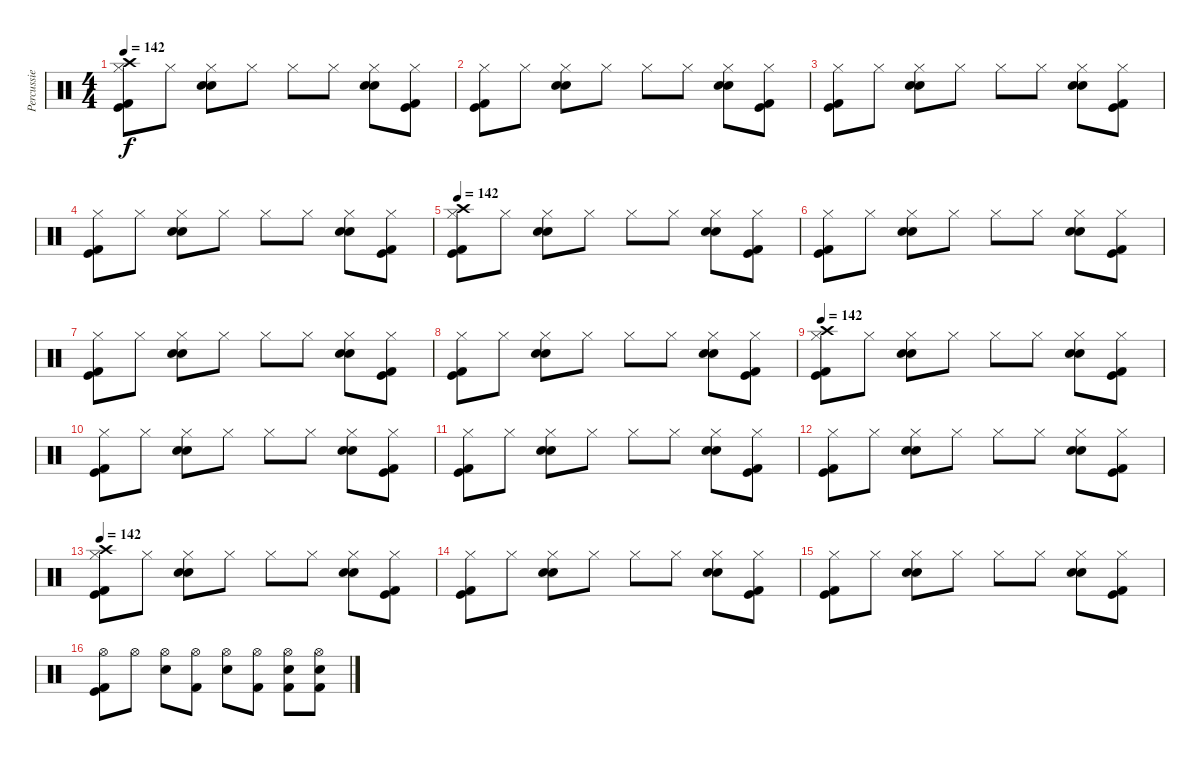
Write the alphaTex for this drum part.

\track ("Percussie" "Percussie") {instrument percussion}
\staff {score}
\articulation defaults
\ts (4 4)
\tempo 142
\clef neutral
\ks c
("Kick (hit)" "Kick (hit) 2" "Hi-Hat (closed)" "Crash high (hit)").8{dy f} "Hi-Hat (closed)".8 ("Snare (hit) 2" "Electric Snare (hit)" "Hi-Hat (closed)").8 "Hi-Hat (closed)".8 "Hi-Hat (closed)".8 "Hi-Hat (closed)".8 ("Snare (hit) 2" "Electric Snare (hit)" "Hi-Hat (closed)").8 ("Kick (hit)" "Kick (hit) 2" "Hi-Hat (closed)").8 |
("Kick (hit)" "Kick (hit) 2" "Hi-Hat (closed)").8 "Hi-Hat (closed)".8 ("Snare (hit) 2" "Electric Snare (hit)" "Hi-Hat (closed)").8 "Hi-Hat (closed)".8 "Hi-Hat (closed)".8 "Hi-Hat (closed)".8 ("Snare (hit) 2" "Electric Snare (hit)" "Hi-Hat (closed)").8 ("Kick (hit)" "Kick (hit) 2" "Hi-Hat (closed)").8 |
("Kick (hit)" "Kick (hit) 2" "Hi-Hat (closed)").8 "Hi-Hat (closed)".8 ("Snare (hit) 2" "Electric Snare (hit)" "Hi-Hat (closed)").8 "Hi-Hat (closed)".8 "Hi-Hat (closed)".8 "Hi-Hat (closed)".8 ("Snare (hit) 2" "Electric Snare (hit)" "Hi-Hat (closed)").8 ("Kick (hit)" "Kick (hit) 2" "Hi-Hat (closed)").8 |
("Kick (hit)" "Kick (hit) 2" "Hi-Hat (closed)").8 "Hi-Hat (closed)".8 ("Snare (hit) 2" "Electric Snare (hit)" "Hi-Hat (closed)").8 "Hi-Hat (closed)".8 "Hi-Hat (closed)".8 "Hi-Hat (closed)".8 ("Snare (hit) 2" "Electric Snare (hit)" "Hi-Hat (closed)").8 ("Kick (hit)" "Kick (hit) 2" "Hi-Hat (closed)").8 |
\tempo 142
("Kick (hit)" "Kick (hit) 2" "Hi-Hat (closed)" "Crash high (hit)").8 "Hi-Hat (closed)".8 ("Snare (hit) 2" "Electric Snare (hit)" "Hi-Hat (closed)").8 "Hi-Hat (closed)".8 "Hi-Hat (closed)".8 "Hi-Hat (closed)".8 ("Snare (hit) 2" "Electric Snare (hit)" "Hi-Hat (closed)").8 ("Kick (hit)" "Kick (hit) 2" "Hi-Hat (closed)").8 |
("Kick (hit)" "Kick (hit) 2" "Hi-Hat (closed)").8 "Hi-Hat (closed)".8 ("Snare (hit) 2" "Electric Snare (hit)" "Hi-Hat (closed)").8 "Hi-Hat (closed)".8 "Hi-Hat (closed)".8 "Hi-Hat (closed)".8 ("Snare (hit) 2" "Electric Snare (hit)" "Hi-Hat (closed)").8 ("Kick (hit)" "Kick (hit) 2" "Hi-Hat (closed)").8 |
("Kick (hit)" "Kick (hit) 2" "Hi-Hat (closed)").8 "Hi-Hat (closed)".8 ("Snare (hit) 2" "Electric Snare (hit)" "Hi-Hat (closed)").8 "Hi-Hat (closed)".8 "Hi-Hat (closed)".8 "Hi-Hat (closed)".8 ("Snare (hit) 2" "Electric Snare (hit)" "Hi-Hat (closed)").8 ("Kick (hit)" "Kick (hit) 2" "Hi-Hat (closed)").8 |
("Kick (hit)" "Kick (hit) 2" "Hi-Hat (closed)").8 "Hi-Hat (closed)".8 ("Snare (hit) 2" "Electric Snare (hit)" "Hi-Hat (closed)").8 "Hi-Hat (closed)".8 "Hi-Hat (closed)".8 "Hi-Hat (closed)".8 ("Snare (hit) 2" "Electric Snare (hit)" "Hi-Hat (closed)").8 ("Kick (hit)" "Kick (hit) 2" "Hi-Hat (closed)").8 |
\tempo 142
("Kick (hit)" "Kick (hit) 2" "Hi-Hat (closed)" "Crash high (hit)").8 "Hi-Hat (closed)".8 ("Snare (hit) 2" "Electric Snare (hit)" "Hi-Hat (closed)").8 "Hi-Hat (closed)".8 "Hi-Hat (closed)".8 "Hi-Hat (closed)".8 ("Snare (hit) 2" "Electric Snare (hit)" "Hi-Hat (closed)").8 ("Kick (hit)" "Kick (hit) 2" "Hi-Hat (closed)").8 |
("Kick (hit)" "Kick (hit) 2" "Hi-Hat (closed)").8 "Hi-Hat (closed)".8 ("Snare (hit) 2" "Electric Snare (hit)" "Hi-Hat (closed)").8 "Hi-Hat (closed)".8 "Hi-Hat (closed)".8 "Hi-Hat (closed)".8 ("Snare (hit) 2" "Electric Snare (hit)" "Hi-Hat (closed)").8 ("Kick (hit)" "Kick (hit) 2" "Hi-Hat (closed)").8 |
("Kick (hit)" "Kick (hit) 2" "Hi-Hat (closed)").8 "Hi-Hat (closed)".8 ("Snare (hit) 2" "Electric Snare (hit)" "Hi-Hat (closed)").8 "Hi-Hat (closed)".8 "Hi-Hat (closed)".8 "Hi-Hat (closed)".8 ("Snare (hit) 2" "Electric Snare (hit)" "Hi-Hat (closed)").8 ("Kick (hit)" "Kick (hit) 2" "Hi-Hat (closed)").8 |
("Kick (hit)" "Kick (hit) 2" "Hi-Hat (closed)").8 "Hi-Hat (closed)".8 ("Snare (hit) 2" "Electric Snare (hit)" "Hi-Hat (closed)").8 "Hi-Hat (closed)".8 "Hi-Hat (closed)".8 "Hi-Hat (closed)".8 ("Snare (hit) 2" "Electric Snare (hit)" "Hi-Hat (closed)").8 ("Kick (hit)" "Kick (hit) 2" "Hi-Hat (closed)").8 |
\tempo 142
("Kick (hit)" "Kick (hit) 2" "Hi-Hat (closed)" "Crash high (hit)").8 "Hi-Hat (closed)".8 ("Snare (hit) 2" "Electric Snare (hit)" "Hi-Hat (closed)").8 "Hi-Hat (closed)".8 "Hi-Hat (closed)".8 "Hi-Hat (closed)".8 ("Snare (hit) 2" "Electric Snare (hit)" "Hi-Hat (closed)").8 ("Kick (hit)" "Kick (hit) 2" "Hi-Hat (closed)").8 |
("Kick (hit)" "Kick (hit) 2" "Hi-Hat (closed)").8 "Hi-Hat (closed)".8 ("Snare (hit) 2" "Electric Snare (hit)" "Hi-Hat (closed)").8 "Hi-Hat (closed)".8 "Hi-Hat (closed)".8 "Hi-Hat (closed)".8 ("Snare (hit) 2" "Electric Snare (hit)" "Hi-Hat (closed)").8 ("Kick (hit)" "Kick (hit) 2" "Hi-Hat (closed)").8 |
("Kick (hit)" "Kick (hit) 2" "Hi-Hat (closed)").8 "Hi-Hat (closed)".8 ("Snare (hit) 2" "Electric Snare (hit)" "Hi-Hat (closed)").8 "Hi-Hat (closed)".8 "Hi-Hat (closed)".8 "Hi-Hat (closed)".8 ("Snare (hit) 2" "Electric Snare (hit)" "Hi-Hat (closed)").8 ("Kick (hit)" "Kick (hit) 2" "Hi-Hat (closed)").8 |
("Kick (hit)" "Kick (hit) 2" "Hi-Hat (open)").8 "Hi-Hat (open)".8 ("Electric Snare (hit)" "Hi-Hat (open)").8 ("Kick (hit) 2" "Hi-Hat (open)").8 ("Electric Snare (hit)" "Hi-Hat (open)").8 ("Kick (hit) 2" "Hi-Hat (open)").8 ("Kick (hit) 2" "Electric Snare (hit)" "Hi-Hat (open)").8 ("Kick (hit) 2" "Electric Snare (hit)" "Hi-Hat (open)").8
